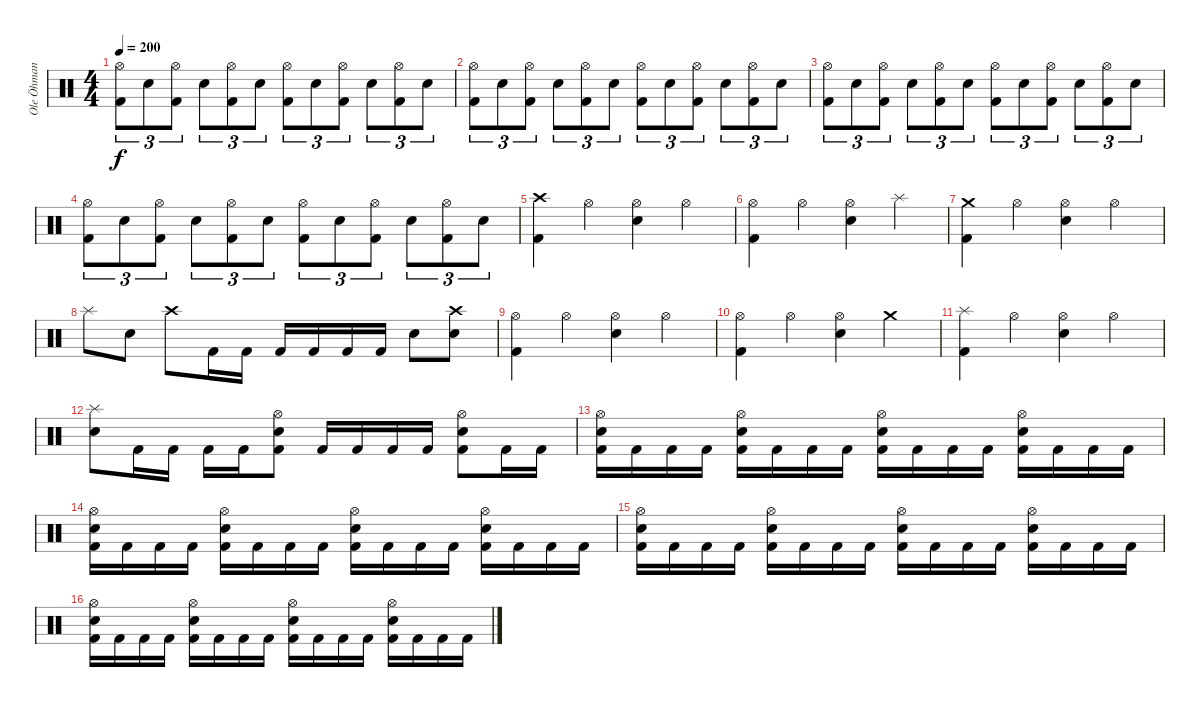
\track ("Ole Öhman" "Ole Öhman") {instrument percussion}
\staff {score}
\articulation defaults
\ts (4 4)
\tempo 200
\clef neutral
\ks c
("Hi-Hat (open)" "Kick (hit) 2").8{tu (3 2) dy f} "Snare (hit) 2".8{tu (3 2)} ("Hi-Hat (open)" "Kick (hit) 2").8{tu (3 2)} "Snare (hit) 2".8{tu (3 2)} ("Hi-Hat (open)" "Kick (hit) 2").8{tu (3 2)} "Snare (hit) 2".8{tu (3 2)} ("Hi-Hat (open)" "Kick (hit) 2").8{tu (3 2)} "Snare (hit) 2".8{tu (3 2)} ("Hi-Hat (open)" "Kick (hit) 2").8{tu (3 2)} "Snare (hit) 2".8{tu (3 2)} ("Hi-Hat (open)" "Kick (hit) 2").8{tu (3 2)} "Snare (hit) 2".8{tu (3 2)} |
("Hi-Hat (open)" "Kick (hit) 2").8{tu (3 2)} "Snare (hit) 2".8{tu (3 2)} ("Hi-Hat (open)" "Kick (hit) 2").8{tu (3 2)} "Snare (hit) 2".8{tu (3 2)} ("Hi-Hat (open)" "Kick (hit) 2").8{tu (3 2)} "Snare (hit) 2".8{tu (3 2)} ("Hi-Hat (open)" "Kick (hit) 2").8{tu (3 2)} "Snare (hit) 2".8{tu (3 2)} ("Hi-Hat (open)" "Kick (hit) 2").8{tu (3 2)} "Snare (hit) 2".8{tu (3 2)} ("Hi-Hat (open)" "Kick (hit) 2").8{tu (3 2)} "Snare (hit) 2".8{tu (3 2)} |
("Hi-Hat (open)" "Kick (hit) 2").8{tu (3 2)} "Snare (hit) 2".8{tu (3 2)} ("Hi-Hat (open)" "Kick (hit) 2").8{tu (3 2)} "Snare (hit) 2".8{tu (3 2)} ("Hi-Hat (open)" "Kick (hit) 2").8{tu (3 2)} "Snare (hit) 2".8{tu (3 2)} ("Hi-Hat (open)" "Kick (hit) 2").8{tu (3 2)} "Snare (hit) 2".8{tu (3 2)} ("Hi-Hat (open)" "Kick (hit) 2").8{tu (3 2)} "Snare (hit) 2".8{tu (3 2)} ("Hi-Hat (open)" "Kick (hit) 2").8{tu (3 2)} "Snare (hit) 2".8{tu (3 2)} |
("Hi-Hat (open)" "Kick (hit) 2").8{tu (3 2)} "Snare (hit) 2".8{tu (3 2)} ("Hi-Hat (open)" "Kick (hit) 2").8{tu (3 2)} "Snare (hit) 2".8{tu (3 2)} ("Hi-Hat (open)" "Kick (hit) 2").8{tu (3 2)} "Snare (hit) 2".8{tu (3 2)} ("Hi-Hat (open)" "Kick (hit) 2").8{tu (3 2)} "Snare (hit) 2".8{tu (3 2)} ("Hi-Hat (open)" "Kick (hit) 2").8{tu (3 2)} "Snare (hit) 2".8{tu (3 2)} ("Hi-Hat (open)" "Kick (hit) 2").8{tu (3 2)} "Snare (hit) 2".8{tu (3 2)} |
("Crash high (hit)" "Kick (hit) 2").4 "Hi-Hat (open)".4 ("Hi-Hat (open)" "Snare (hit) 2").4 "Hi-Hat (open)".4 |
("Hi-Hat (open)" "Kick (hit) 2").4 "Hi-Hat (open)".4 ("Snare (hit) 2" "Hi-Hat (open)").4 "Splash (hit)".4 |
("Crash medium (hit)" "Kick (hit) 2").4 "Hi-Hat (open)".4 ("Hi-Hat (open)" "Snare (hit) 2").4 "Hi-Hat (open)".4 |
"Splash (hit)".8 "Snare (hit) 2".8 "Crash high (hit)".8 "Kick (hit) 2".16 "Kick (hit) 2".16 "Kick (hit) 2".16 "Kick (hit) 2".16 "Kick (hit) 2".16 "Kick (hit) 2".16 "Snare (hit) 2".8 ("Crash high (hit)" "Snare (hit) 2").8 |
("Hi-Hat (open)" "Kick (hit) 2").4 "Hi-Hat (open)".4 ("Hi-Hat (open)" "Snare (hit) 2").4 "Hi-Hat (open)".4 |
("Hi-Hat (open)" "Kick (hit) 2").4 "Hi-Hat (open)".4 ("Snare (hit) 2" "Hi-Hat (open)").4 "Crash medium (hit)".4 |
("Splash (hit)" "Kick (hit) 2").4 "Hi-Hat (open)".4 ("Hi-Hat (open)" "Snare (hit) 2").4 "Hi-Hat (open)".4 |
("Splash (hit)" "Snare (hit) 2").8 "Kick (hit) 2".16 "Kick (hit) 2".16 "Kick (hit) 2".16 "Kick (hit) 2".16 ("Hi-Hat (open)" "Snare (hit) 2" "Kick (hit) 2").8 "Kick (hit) 2".16 "Kick (hit) 2".16 "Kick (hit) 2".16 "Kick (hit) 2".16 ("Hi-Hat (open)" "Snare (hit) 2" "Kick (hit) 2").8 "Kick (hit) 2".16 "Kick (hit) 2".16 |
("Hi-Hat (open)" "Snare (hit) 2" "Kick (hit) 2").16 "Kick (hit) 2".16 "Kick (hit) 2".16 "Kick (hit) 2".16 ("Hi-Hat (open)" "Snare (hit) 2" "Kick (hit) 2").16 "Kick (hit) 2".16 "Kick (hit) 2".16 "Kick (hit) 2".16 ("Snare (hit) 2" "Hi-Hat (open)" "Kick (hit) 2").16 "Kick (hit) 2".16 "Kick (hit) 2".16 "Kick (hit) 2".16 ("Hi-Hat (open)" "Snare (hit) 2" "Kick (hit) 2").16 "Kick (hit) 2".16 "Kick (hit) 2".16 "Kick (hit) 2".16 |
("Hi-Hat (open)" "Snare (hit) 2" "Kick (hit) 2").16 "Kick (hit) 2".16 "Kick (hit) 2".16 "Kick (hit) 2".16 ("Hi-Hat (open)" "Snare (hit) 2" "Kick (hit) 2").16 "Kick (hit) 2".16 "Kick (hit) 2".16 "Kick (hit) 2".16 ("Snare (hit) 2" "Hi-Hat (open)" "Kick (hit) 2").16 "Kick (hit) 2".16 "Kick (hit) 2".16 "Kick (hit) 2".16 ("Hi-Hat (open)" "Snare (hit) 2" "Kick (hit) 2").16 "Kick (hit) 2".16 "Kick (hit) 2".16 "Kick (hit) 2".16 |
("Hi-Hat (open)" "Snare (hit) 2" "Kick (hit) 2").16 "Kick (hit) 2".16 "Kick (hit) 2".16 "Kick (hit) 2".16 ("Hi-Hat (open)" "Snare (hit) 2" "Kick (hit) 2").16 "Kick (hit) 2".16 "Kick (hit) 2".16 "Kick (hit) 2".16 ("Snare (hit) 2" "Hi-Hat (open)" "Kick (hit) 2").16 "Kick (hit) 2".16 "Kick (hit) 2".16 "Kick (hit) 2".16 ("Hi-Hat (open)" "Snare (hit) 2" "Kick (hit) 2").16 "Kick (hit) 2".16 "Kick (hit) 2".16 "Kick (hit) 2".16 |
("Hi-Hat (open)" "Snare (hit) 2" "Kick (hit) 2").16 "Kick (hit) 2".16 "Kick (hit) 2".16 "Kick (hit) 2".16 ("Hi-Hat (open)" "Snare (hit) 2" "Kick (hit) 2").16 "Kick (hit) 2".16 "Kick (hit) 2".16 "Kick (hit) 2".16 ("Snare (hit) 2" "Hi-Hat (open)" "Kick (hit) 2").16 "Kick (hit) 2".16 "Kick (hit) 2".16 "Kick (hit) 2".16 ("Hi-Hat (open)" "Snare (hit) 2" "Kick (hit) 2").16 "Kick (hit) 2".16 "Kick (hit) 2".16 "Kick (hit) 2".16
